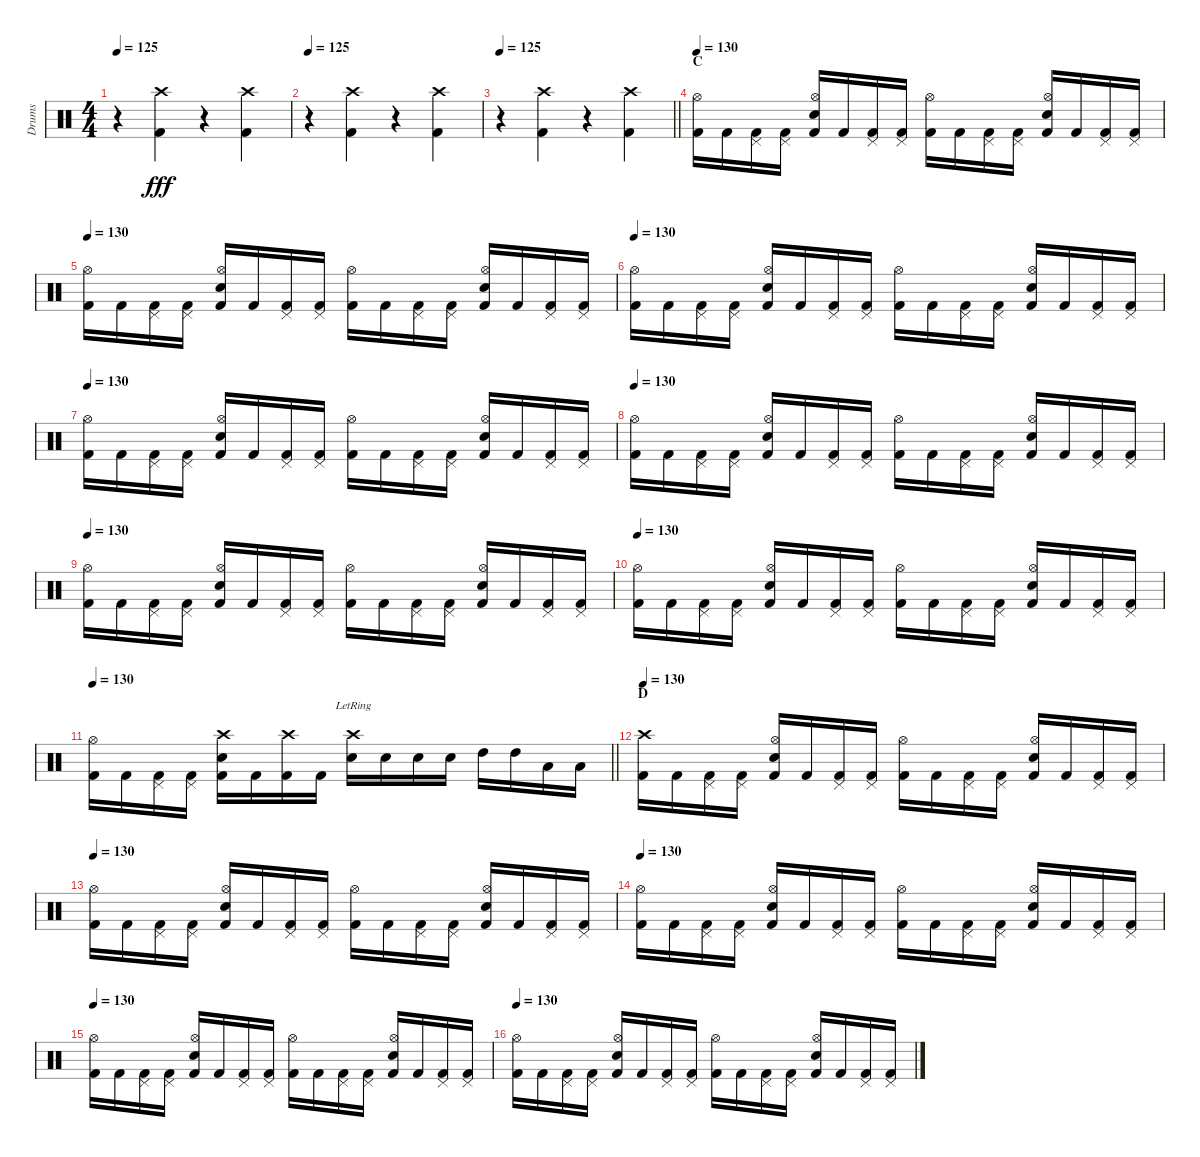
\track ("Drums" "Drums") {instrument percussion}
\staff {score}
\articulation defaults
\ts (4 4)
\tempo 125
\clef neutral
\ks c
r.4{dy fff} ("Crash high (hit)" "Kick (hit) 2").4 r.4 ("Crash high (hit)" "Kick (hit) 2").4 |
\tempo 125
r.4 ("Crash high (hit)" "Kick (hit) 2").4 r.4 ("Crash high (hit)" "Kick (hit) 2").4 |
\tempo 125
\barLineRight lightlight
r.4 ("Crash high (hit)" "Kick (hit) 2").4 r.4 ("Crash high (hit)" "Kick (hit) 2").4 |
\section ("" "C")
\tempo 130
("Hi-Hat (open)" "Kick (hit) 2").16 "Kick (hit) 2".16 ("Pedal Hi-Hat (hit)" "Kick (hit) 2").16 ("Pedal Hi-Hat (hit)" "Kick (hit) 2").16 ("Hi-Hat (open)" "Electric Snare (hit)" "Kick (hit) 2").16 "Kick (hit) 2".16 ("Pedal Hi-Hat (hit)" "Kick (hit) 2").16 ("Pedal Hi-Hat (hit)" "Kick (hit) 2").16 ("Hi-Hat (open)" "Kick (hit) 2").16 "Kick (hit) 2".16 ("Pedal Hi-Hat (hit)" "Kick (hit) 2").16 ("Pedal Hi-Hat (hit)" "Kick (hit) 2").16 ("Hi-Hat (open)" "Snare (hit) 2" "Kick (hit) 2").16 "Kick (hit) 2".16 ("Pedal Hi-Hat (hit)" "Kick (hit) 2").16 ("Pedal Hi-Hat (hit)" "Kick (hit) 2").16 |
\tempo 130
("Hi-Hat (open)" "Kick (hit) 2").16 "Kick (hit) 2".16 ("Pedal Hi-Hat (hit)" "Kick (hit) 2").16 ("Pedal Hi-Hat (hit)" "Kick (hit) 2").16 ("Hi-Hat (open)" "Snare (hit) 2" "Kick (hit) 2").16 "Kick (hit) 2".16 ("Pedal Hi-Hat (hit)" "Kick (hit) 2").16 ("Pedal Hi-Hat (hit)" "Kick (hit) 2").16 ("Hi-Hat (open)" "Kick (hit) 2").16 "Kick (hit) 2".16 ("Pedal Hi-Hat (hit)" "Kick (hit) 2").16 ("Pedal Hi-Hat (hit)" "Kick (hit) 2").16 ("Hi-Hat (open)" "Snare (hit) 2" "Kick (hit) 2").16 "Kick (hit) 2".16 ("Pedal Hi-Hat (hit)" "Kick (hit) 2").16 ("Pedal Hi-Hat (hit)" "Kick (hit) 2").16 |
\tempo 130
("Hi-Hat (open)" "Kick (hit) 2").16 "Kick (hit) 2".16 ("Pedal Hi-Hat (hit)" "Kick (hit) 2").16 ("Pedal Hi-Hat (hit)" "Kick (hit) 2").16 ("Hi-Hat (open)" "Snare (hit) 2" "Kick (hit) 2").16 "Kick (hit) 2".16 ("Pedal Hi-Hat (hit)" "Kick (hit) 2").16 ("Pedal Hi-Hat (hit)" "Kick (hit) 2").16 ("Hi-Hat (open)" "Kick (hit) 2").16 "Kick (hit) 2".16 ("Pedal Hi-Hat (hit)" "Kick (hit) 2").16 ("Pedal Hi-Hat (hit)" "Kick (hit) 2").16 ("Hi-Hat (open)" "Snare (hit) 2" "Kick (hit) 2").16 "Kick (hit) 2".16 ("Pedal Hi-Hat (hit)" "Kick (hit) 2").16 ("Pedal Hi-Hat (hit)" "Kick (hit) 2").16 |
\tempo 130
("Hi-Hat (open)" "Kick (hit) 2").16 "Kick (hit) 2".16 ("Pedal Hi-Hat (hit)" "Kick (hit) 2").16 ("Pedal Hi-Hat (hit)" "Kick (hit) 2").16 ("Hi-Hat (open)" "Snare (hit) 2" "Kick (hit) 2").16 "Kick (hit) 2".16 ("Pedal Hi-Hat (hit)" "Kick (hit) 2").16 ("Pedal Hi-Hat (hit)" "Kick (hit) 2").16 ("Hi-Hat (open)" "Kick (hit) 2").16 "Kick (hit) 2".16 ("Pedal Hi-Hat (hit)" "Kick (hit) 2").16 ("Pedal Hi-Hat (hit)" "Kick (hit) 2").16 ("Hi-Hat (open)" "Snare (hit) 2" "Kick (hit) 2").16 "Kick (hit) 2".16 ("Pedal Hi-Hat (hit)" "Kick (hit) 2").16 ("Pedal Hi-Hat (hit)" "Kick (hit) 2").16 |
\tempo 130
("Hi-Hat (open)" "Kick (hit) 2").16 "Kick (hit) 2".16 ("Pedal Hi-Hat (hit)" "Kick (hit) 2").16 ("Pedal Hi-Hat (hit)" "Kick (hit) 2").16 ("Hi-Hat (open)" "Snare (hit) 2" "Kick (hit) 2").16 "Kick (hit) 2".16 ("Pedal Hi-Hat (hit)" "Kick (hit) 2").16 ("Pedal Hi-Hat (hit)" "Kick (hit) 2").16 ("Hi-Hat (open)" "Kick (hit) 2").16 "Kick (hit) 2".16 ("Pedal Hi-Hat (hit)" "Kick (hit) 2").16 ("Pedal Hi-Hat (hit)" "Kick (hit) 2").16 ("Hi-Hat (open)" "Snare (hit) 2" "Kick (hit) 2").16 "Kick (hit) 2".16 ("Pedal Hi-Hat (hit)" "Kick (hit) 2").16 ("Pedal Hi-Hat (hit)" "Kick (hit) 2").16 |
\tempo 130
("Hi-Hat (open)" "Kick (hit) 2").16 "Kick (hit) 2".16 ("Pedal Hi-Hat (hit)" "Kick (hit) 2").16 ("Pedal Hi-Hat (hit)" "Kick (hit) 2").16 ("Hi-Hat (open)" "Snare (hit) 2" "Kick (hit) 2").16 "Kick (hit) 2".16 ("Pedal Hi-Hat (hit)" "Kick (hit) 2").16 ("Pedal Hi-Hat (hit)" "Kick (hit) 2").16 ("Hi-Hat (open)" "Kick (hit) 2").16 "Kick (hit) 2".16 ("Pedal Hi-Hat (hit)" "Kick (hit) 2").16 ("Pedal Hi-Hat (hit)" "Kick (hit) 2").16 ("Hi-Hat (open)" "Snare (hit) 2" "Kick (hit) 2").16 "Kick (hit) 2".16 ("Pedal Hi-Hat (hit)" "Kick (hit) 2").16 ("Pedal Hi-Hat (hit)" "Kick (hit) 2").16 |
\tempo 130
("Hi-Hat (open)" "Kick (hit) 2").16 "Kick (hit) 2".16 ("Pedal Hi-Hat (hit)" "Kick (hit) 2").16 ("Pedal Hi-Hat (hit)" "Kick (hit) 2").16 ("Hi-Hat (open)" "Snare (hit) 2" "Kick (hit) 2").16 "Kick (hit) 2".16 ("Pedal Hi-Hat (hit)" "Kick (hit) 2").16 ("Pedal Hi-Hat (hit)" "Kick (hit) 2").16 ("Hi-Hat (open)" "Kick (hit) 2").16 "Kick (hit) 2".16 ("Pedal Hi-Hat (hit)" "Kick (hit) 2").16 ("Pedal Hi-Hat (hit)" "Kick (hit) 2").16 ("Hi-Hat (open)" "Snare (hit) 2" "Kick (hit) 2").16 "Kick (hit) 2".16 ("Pedal Hi-Hat (hit)" "Kick (hit) 2").16 ("Pedal Hi-Hat (hit)" "Kick (hit) 2").16 |
\tempo 130
\barLineRight lightlight
("Hi-Hat (open)" "Kick (hit) 2").16 "Kick (hit) 2".16 ("Pedal Hi-Hat (hit)" "Kick (hit) 2").16 ("Pedal Hi-Hat (hit)" "Kick (hit) 2").16 ("Crash high (hit)" "Snare (hit) 2" "Kick (hit) 2").16 "Kick (hit) 2".16 ("Crash high (hit)" "Kick (hit) 2").16 "Kick (hit) 2".16 ("Crash high (hit)"{lr} "Snare (hit) 2").16 "Snare (hit) 2".16 "Snare (hit) 2".16 "Snare (hit) 2".16 "High Tom (hit)".16 "High Tom (hit)".16 "Low Tom (hit)".16 "Low Tom (hit)".16 |
\section ("" "D")
\tempo 130
("Crash high (hit)" "Kick (hit) 2").16 "Kick (hit) 2".16 ("Pedal Hi-Hat (hit)" "Kick (hit) 2").16 ("Pedal Hi-Hat (hit)" "Kick (hit) 2").16 ("Hi-Hat (open)" "Snare (hit) 2" "Kick (hit) 2").16 "Kick (hit) 2".16 ("Pedal Hi-Hat (hit)" "Kick (hit) 2").16 ("Pedal Hi-Hat (hit)" "Kick (hit) 2").16 ("Hi-Hat (open)" "Kick (hit) 2").16 "Kick (hit) 2".16 ("Pedal Hi-Hat (hit)" "Kick (hit) 2").16 ("Pedal Hi-Hat (hit)" "Kick (hit) 2").16 ("Hi-Hat (open)" "Snare (hit) 2" "Kick (hit) 2").16 "Kick (hit) 2".16 ("Pedal Hi-Hat (hit)" "Kick (hit) 2").16 ("Pedal Hi-Hat (hit)" "Kick (hit) 2").16 |
\tempo 130
("Hi-Hat (open)" "Kick (hit) 2").16 "Kick (hit) 2".16 ("Pedal Hi-Hat (hit)" "Kick (hit) 2").16 ("Pedal Hi-Hat (hit)" "Kick (hit) 2").16 ("Hi-Hat (open)" "Snare (hit) 2" "Kick (hit) 2").16 "Kick (hit) 2".16 ("Pedal Hi-Hat (hit)" "Kick (hit) 2").16 ("Pedal Hi-Hat (hit)" "Kick (hit) 2").16 ("Hi-Hat (open)" "Kick (hit) 2").16 "Kick (hit) 2".16 ("Pedal Hi-Hat (hit)" "Kick (hit) 2").16 ("Pedal Hi-Hat (hit)" "Kick (hit) 2").16 ("Hi-Hat (open)" "Snare (hit) 2" "Kick (hit) 2").16 "Kick (hit) 2".16 ("Pedal Hi-Hat (hit)" "Kick (hit) 2").16 ("Pedal Hi-Hat (hit)" "Kick (hit) 2").16 |
\tempo 130
("Hi-Hat (open)" "Kick (hit) 2").16 "Kick (hit) 2".16 ("Pedal Hi-Hat (hit)" "Kick (hit) 2").16 ("Pedal Hi-Hat (hit)" "Kick (hit) 2").16 ("Hi-Hat (open)" "Snare (hit) 2" "Kick (hit) 2").16 "Kick (hit) 2".16 ("Pedal Hi-Hat (hit)" "Kick (hit) 2").16 ("Pedal Hi-Hat (hit)" "Kick (hit) 2").16 ("Hi-Hat (open)" "Kick (hit) 2").16 "Kick (hit) 2".16 ("Pedal Hi-Hat (hit)" "Kick (hit) 2").16 ("Pedal Hi-Hat (hit)" "Kick (hit) 2").16 ("Hi-Hat (open)" "Snare (hit) 2" "Kick (hit) 2").16 "Kick (hit) 2".16 ("Pedal Hi-Hat (hit)" "Kick (hit) 2").16 ("Pedal Hi-Hat (hit)" "Kick (hit) 2").16 |
\tempo 130
("Hi-Hat (open)" "Kick (hit) 2").16 "Kick (hit) 2".16 ("Pedal Hi-Hat (hit)" "Kick (hit) 2").16 ("Pedal Hi-Hat (hit)" "Kick (hit) 2").16 ("Hi-Hat (open)" "Snare (hit) 2" "Kick (hit) 2").16 "Kick (hit) 2".16 ("Pedal Hi-Hat (hit)" "Kick (hit) 2").16 ("Pedal Hi-Hat (hit)" "Kick (hit) 2").16 ("Hi-Hat (open)" "Kick (hit) 2").16 "Kick (hit) 2".16 ("Pedal Hi-Hat (hit)" "Kick (hit) 2").16 ("Pedal Hi-Hat (hit)" "Kick (hit) 2").16 ("Hi-Hat (open)" "Snare (hit) 2" "Kick (hit) 2").16 "Kick (hit) 2".16 ("Pedal Hi-Hat (hit)" "Kick (hit) 2").16 ("Pedal Hi-Hat (hit)" "Kick (hit) 2").16 |
\tempo 130
("Hi-Hat (open)" "Kick (hit) 2").16 "Kick (hit) 2".16 ("Pedal Hi-Hat (hit)" "Kick (hit) 2").16 ("Pedal Hi-Hat (hit)" "Kick (hit) 2").16 ("Hi-Hat (open)" "Snare (hit) 2" "Kick (hit) 2").16 "Kick (hit) 2".16 ("Pedal Hi-Hat (hit)" "Kick (hit) 2").16 ("Pedal Hi-Hat (hit)" "Kick (hit) 2").16 ("Hi-Hat (open)" "Kick (hit) 2").16 "Kick (hit) 2".16 ("Pedal Hi-Hat (hit)" "Kick (hit) 2").16 ("Pedal Hi-Hat (hit)" "Kick (hit) 2").16 ("Hi-Hat (open)" "Snare (hit) 2" "Kick (hit) 2").16 "Kick (hit) 2".16 ("Pedal Hi-Hat (hit)" "Kick (hit) 2").16 ("Pedal Hi-Hat (hit)" "Kick (hit) 2").16
